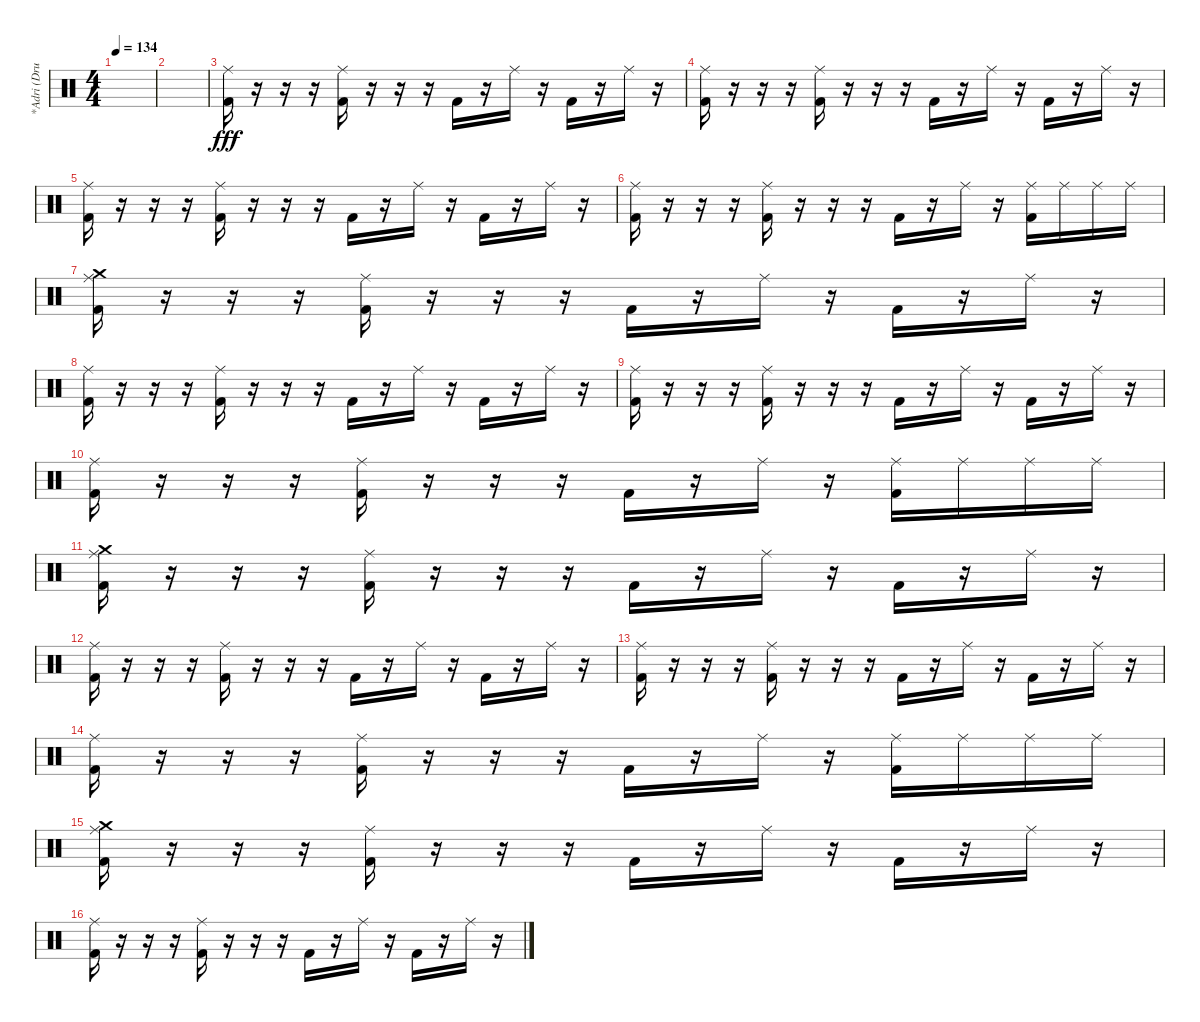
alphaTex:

\track ("*Adri (Drum)" "*Adri (Dru") {instrument percussion}
\staff {score}
\articulation defaults
\ts (4 4)
\tempo 134
\clef neutral
\ks c
|
|
("Ride (middle)" "Kick (hit) 2").16{dy fff} r.16 r.16 r.16 ("Ride (middle)" "Kick (hit) 2").16 r.16 r.16 r.16 "Kick (hit) 2".16 r.16 "Ride (middle)".16 r.16 "Kick (hit) 2".16 r.16 "Ride (middle)".16 r.16 |
("Ride (middle)" "Kick (hit) 2").16 r.16 r.16 r.16 ("Ride (middle)" "Kick (hit) 2").16 r.16 r.16 r.16 "Kick (hit) 2".16 r.16 "Ride (middle)".16 r.16 "Kick (hit) 2".16 r.16 "Ride (middle)".16 r.16 |
("Ride (middle)" "Kick (hit) 2").16 r.16 r.16 r.16 ("Ride (middle)" "Kick (hit) 2").16 r.16 r.16 r.16 "Kick (hit) 2".16 r.16 "Ride (middle)".16 r.16 "Kick (hit) 2".16 r.16 "Ride (middle)".16 r.16 |
("Ride (middle)" "Kick (hit) 2").16 r.16 r.16 r.16 ("Ride (middle)" "Kick (hit) 2").16 r.16 r.16 r.16 "Kick (hit) 2".16 r.16 "Ride (middle)".16 r.16 ("Ride (middle)" "Kick (hit) 2").16 "Ride (middle)".16 "Ride (middle)".16 "Ride (middle)".16 |
("Crash medium (hit)" "Ride (middle)" "Kick (hit) 2").16 r.16 r.16 r.16 ("Ride (middle)" "Kick (hit) 2").16 r.16 r.16 r.16 "Kick (hit) 2".16 r.16 "Ride (middle)".16 r.16 "Kick (hit) 2".16 r.16 "Ride (middle)".16 r.16 |
("Ride (middle)" "Kick (hit) 2").16 r.16 r.16 r.16 ("Ride (middle)" "Kick (hit) 2").16 r.16 r.16 r.16 "Kick (hit) 2".16 r.16 "Ride (middle)".16 r.16 "Kick (hit) 2".16 r.16 "Ride (middle)".16 r.16 |
("Ride (middle)" "Kick (hit) 2").16 r.16 r.16 r.16 ("Ride (middle)" "Kick (hit) 2").16 r.16 r.16 r.16 "Kick (hit) 2".16 r.16 "Ride (middle)".16 r.16 "Kick (hit) 2".16 r.16 "Ride (middle)".16 r.16 |
("Ride (middle)" "Kick (hit) 2").16 r.16 r.16 r.16 ("Ride (middle)" "Kick (hit) 2").16 r.16 r.16 r.16 "Kick (hit) 2".16 r.16 "Ride (middle)".16 r.16 ("Ride (middle)" "Kick (hit) 2").16 "Ride (middle)".16 "Ride (middle)".16 "Ride (middle)".16 |
("Crash medium (hit)" "Ride (middle)" "Kick (hit) 2").16 r.16 r.16 r.16 ("Ride (middle)" "Kick (hit) 2").16 r.16 r.16 r.16 "Kick (hit) 2".16 r.16 "Ride (middle)".16 r.16 "Kick (hit) 2".16 r.16 "Ride (middle)".16 r.16 |
("Ride (middle)" "Kick (hit) 2").16 r.16 r.16 r.16 ("Ride (middle)" "Kick (hit) 2").16 r.16 r.16 r.16 "Kick (hit) 2".16 r.16 "Ride (middle)".16 r.16 "Kick (hit) 2".16 r.16 "Ride (middle)".16 r.16 |
("Ride (middle)" "Kick (hit) 2").16 r.16 r.16 r.16 ("Ride (middle)" "Kick (hit) 2").16 r.16 r.16 r.16 "Kick (hit) 2".16 r.16 "Ride (middle)".16 r.16 "Kick (hit) 2".16 r.16 "Ride (middle)".16 r.16 |
("Ride (middle)" "Kick (hit) 2").16 r.16 r.16 r.16 ("Ride (middle)" "Kick (hit) 2").16 r.16 r.16 r.16 "Kick (hit) 2".16 r.16 "Ride (middle)".16 r.16 ("Ride (middle)" "Kick (hit) 2").16 "Ride (middle)".16 "Ride (middle)".16 "Ride (middle)".16 |
("Crash medium (hit)" "Ride (middle)" "Kick (hit) 2").16 r.16 r.16 r.16 ("Ride (middle)" "Kick (hit) 2").16 r.16 r.16 r.16 "Kick (hit) 2".16 r.16 "Ride (middle)".16 r.16 "Kick (hit) 2".16 r.16 "Ride (middle)".16 r.16 |
("Ride (middle)" "Kick (hit) 2").16 r.16 r.16 r.16 ("Ride (middle)" "Kick (hit) 2").16 r.16 r.16 r.16 "Kick (hit) 2".16 r.16 "Ride (middle)".16 r.16 "Kick (hit) 2".16 r.16 "Ride (middle)".16 r.16
